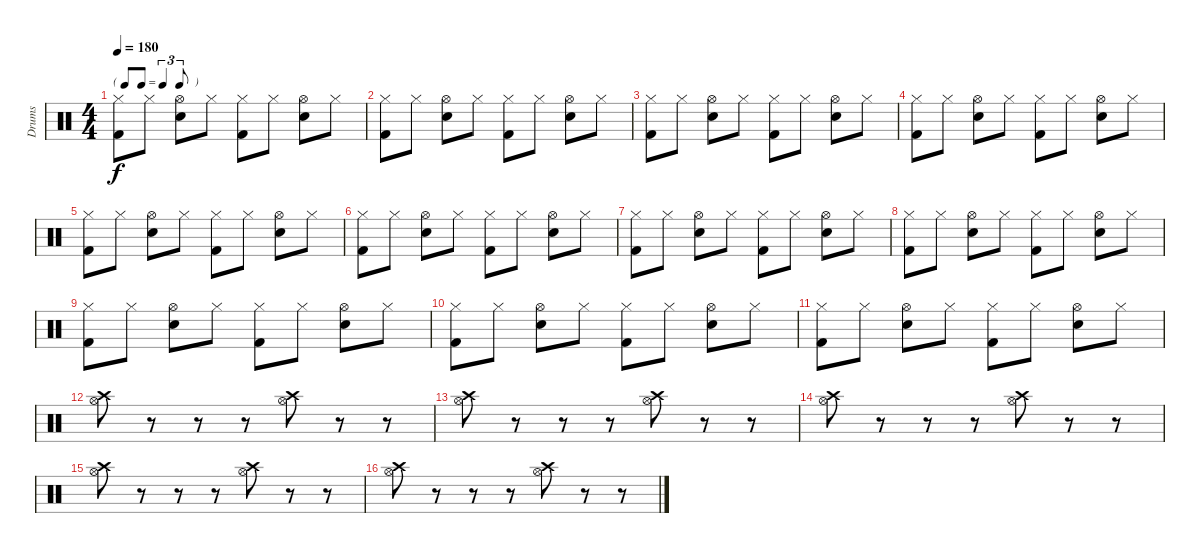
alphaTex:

\track ("Drums" "Drums") {instrument percussion}
\staff {score}
\articulation defaults
\ts (4 4)
\tf triplet8th
\tempo 180
\clef neutral
\ks c
("Hi-Hat (closed)" "Kick (hit) 2").8{dy f} "Hi-Hat (closed)".8 ("Hi-Hat (open)" "Snare (hit) 2").8 "Hi-Hat (closed)".8 ("Hi-Hat (closed)" "Kick (hit) 2").8 "Hi-Hat (closed)".8 ("Hi-Hat (open)" "Snare (hit) 2").8 "Hi-Hat (closed)".8 |
("Hi-Hat (closed)" "Kick (hit) 2").8 "Hi-Hat (closed)".8 ("Hi-Hat (open)" "Snare (hit) 2").8 "Hi-Hat (closed)".8 ("Hi-Hat (closed)" "Kick (hit) 2").8 "Hi-Hat (closed)".8 ("Hi-Hat (open)" "Snare (hit) 2").8 "Hi-Hat (closed)".8 |
("Hi-Hat (closed)" "Kick (hit) 2").8 "Hi-Hat (closed)".8 ("Hi-Hat (open)" "Snare (hit) 2").8 "Hi-Hat (closed)".8 ("Hi-Hat (closed)" "Kick (hit) 2").8 "Hi-Hat (closed)".8 ("Hi-Hat (open)" "Snare (hit) 2").8 "Hi-Hat (closed)".8 |
("Hi-Hat (closed)" "Kick (hit) 2").8 "Hi-Hat (closed)".8 ("Hi-Hat (open)" "Snare (hit) 2").8 "Hi-Hat (closed)".8 ("Hi-Hat (closed)" "Kick (hit) 2").8 "Hi-Hat (closed)".8 ("Hi-Hat (open)" "Snare (hit) 2").8 "Hi-Hat (closed)".8 |
("Hi-Hat (closed)" "Kick (hit) 2").8 "Hi-Hat (closed)".8 ("Hi-Hat (open)" "Snare (hit) 2").8 "Hi-Hat (closed)".8 ("Hi-Hat (closed)" "Kick (hit) 2").8 "Hi-Hat (closed)".8 ("Hi-Hat (open)" "Snare (hit) 2").8 "Hi-Hat (closed)".8 |
("Hi-Hat (closed)" "Kick (hit) 2").8 "Hi-Hat (closed)".8 ("Hi-Hat (open)" "Snare (hit) 2").8 "Hi-Hat (closed)".8 ("Hi-Hat (closed)" "Kick (hit) 2").8 "Hi-Hat (closed)".8 ("Hi-Hat (open)" "Snare (hit) 2").8 "Hi-Hat (closed)".8 |
("Hi-Hat (closed)" "Kick (hit) 2").8 "Hi-Hat (closed)".8 ("Hi-Hat (open)" "Snare (hit) 2").8 "Hi-Hat (closed)".8 ("Hi-Hat (closed)" "Kick (hit) 2").8 "Hi-Hat (closed)".8 ("Hi-Hat (open)" "Snare (hit) 2").8 "Hi-Hat (closed)".8 |
("Hi-Hat (closed)" "Kick (hit) 2").8 "Hi-Hat (closed)".8 ("Hi-Hat (open)" "Snare (hit) 2").8 "Hi-Hat (closed)".8 ("Hi-Hat (closed)" "Kick (hit) 2").8 "Hi-Hat (closed)".8 ("Hi-Hat (open)" "Snare (hit) 2").8 "Hi-Hat (closed)".8 |
("Hi-Hat (closed)" "Kick (hit) 2").8 "Hi-Hat (closed)".8 ("Hi-Hat (open)" "Snare (hit) 2").8 "Hi-Hat (closed)".8 ("Hi-Hat (closed)" "Kick (hit) 2").8 "Hi-Hat (closed)".8 ("Hi-Hat (open)" "Snare (hit) 2").8 "Hi-Hat (closed)".8 |
("Hi-Hat (closed)" "Kick (hit) 2").8 "Hi-Hat (closed)".8 ("Hi-Hat (open)" "Snare (hit) 2").8 "Hi-Hat (closed)".8 ("Hi-Hat (closed)" "Kick (hit) 2").8 "Hi-Hat (closed)".8 ("Hi-Hat (open)" "Snare (hit) 2").8 "Hi-Hat (closed)".8 |
("Hi-Hat (closed)" "Kick (hit) 2").8 "Hi-Hat (closed)".8 ("Hi-Hat (open)" "Snare (hit) 2").8 "Hi-Hat (closed)".8 ("Hi-Hat (closed)" "Kick (hit) 2").8 "Hi-Hat (closed)".8 ("Hi-Hat (open)" "Snare (hit) 2").8 "Hi-Hat (closed)".8 |
("Crash high (hit)" "Hi-Hat (open)").8 r.8 r.8 r.8 ("Crash high (hit)" "Hi-Hat (open)").8 r.8 r.8 |
("Hi-Hat (open)" "Crash high (hit)").8 r.8 r.8 r.8 ("Hi-Hat (open)" "Crash high (hit)").8 r.8 r.8 |
("Crash high (hit)" "Hi-Hat (open)").8 r.8 r.8 r.8 ("Crash high (hit)" "Hi-Hat (open)").8 r.8 r.8 |
("Hi-Hat (open)" "Crash high (hit)").8 r.8 r.8 r.8 ("Hi-Hat (open)" "Crash high (hit)").8 r.8 r.8 |
("Crash high (hit)" "Hi-Hat (open)").8 r.8 r.8 r.8 ("Crash high (hit)" "Hi-Hat (open)").8 r.8 r.8
